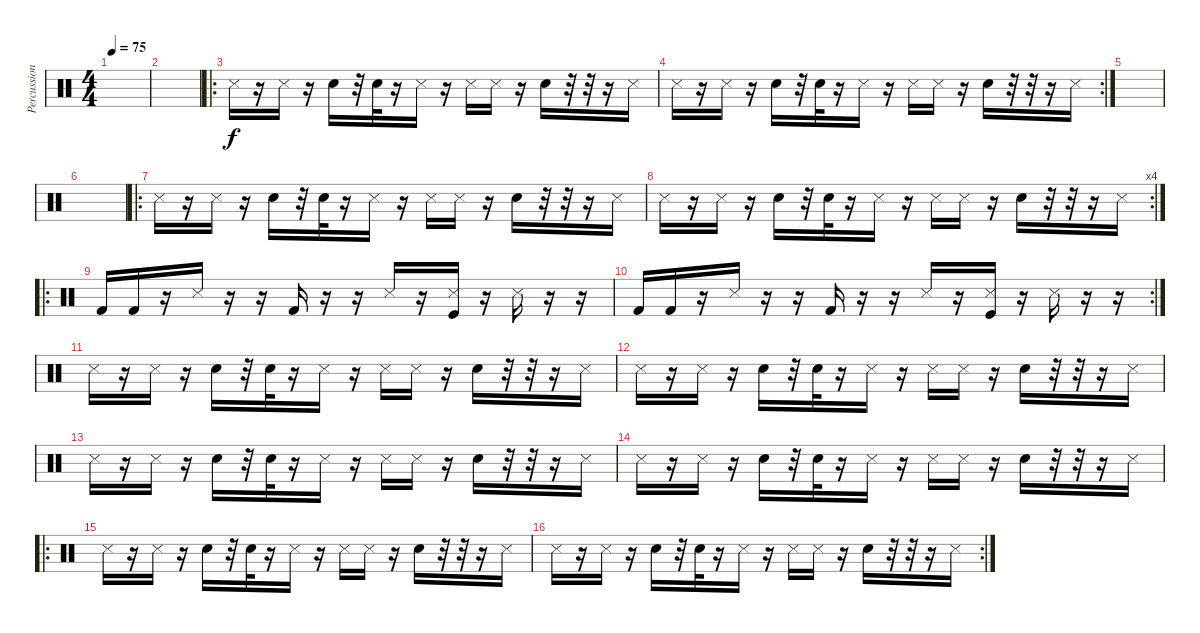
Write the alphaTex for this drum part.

\track ("Percussions" "Percussion") {instrument percussion}
\staff {score}
\articulation defaults
\ts (4 4)
\tempo 75
\clef neutral
\ks c
|
|
\ro "Snare (side stick) 3".16
r.16 "Snare (side stick) 3".16 r.16 "Electric Snare (hit)".16 r.32 "Electric Snare (hit)".32 r.16 "Snare (side stick) 3".16 r.16 "Snare (side stick) 3".16 "Snare (side stick) 3".16 r.16 "Electric Snare (hit)".16 r.32 r.32 r.16 "Snare (side stick) 3".16 |
\rc 2 "Snare (side stick) 3".16
r.16 "Snare (side stick) 3".16 r.16 "Electric Snare (hit)".16 r.32 "Electric Snare (hit)".32 r.16 "Snare (side stick) 3".16 r.16 "Snare (side stick) 3".16 "Snare (side stick) 3".16 r.16 "Electric Snare (hit)".16 r.32 r.32 r.16 "Snare (side stick) 3".16 |
|
|
\ro "Snare (side stick) 3".16
r.16 "Snare (side stick) 3".16 r.16 "Electric Snare (hit)".16 r.32 "Electric Snare (hit)".32 r.16 "Snare (side stick) 3".16 r.16 "Snare (side stick) 3".16 "Snare (side stick) 3".16 r.16 "Electric Snare (hit)".16 r.32 r.32 r.16 "Snare (side stick) 3".16 |
\rc 4 "Snare (side stick) 3".16
r.16 "Snare (side stick) 3".16 r.16 "Electric Snare (hit)".16 r.32 "Electric Snare (hit)".32 r.16 "Snare (side stick) 3".16 r.16 "Snare (side stick) 3".16 "Snare (side stick) 3".16 r.16 "Electric Snare (hit)".16 r.32 r.32 r.16 "Snare (side stick) 3".16 |
\ro "Kick (hit) 2".16 "Kick (hit) 2".16
r.16 "Snare (side stick) 3".16 r.16 r.16 "Kick (hit) 2".16 r.16 r.16 "Snare (side stick) 3".16 r.16 ("Snare (side stick) 3" "Kick (hit)").16 r.16 "Snare (side stick) 3".16 r.16 r.16 |
\rc 2 "Kick (hit) 2".16 "Kick (hit) 2".16
r.16 "Snare (side stick) 3".16 r.16 r.16 "Kick (hit) 2".16 r.16 r.16 "Snare (side stick) 3".16 r.16 ("Snare (side stick) 3" "Kick (hit)").16 r.16 "Snare (side stick) 3".16 r.16 r.16 |
"Snare (side stick) 3".16 r.16 "Snare (side stick) 3".16 r.16 "Electric Snare (hit)".16 r.32 "Electric Snare (hit)".32 r.16 "Snare (side stick) 3".16 r.16 "Snare (side stick) 3".16 "Snare (side stick) 3".16 r.16 "Electric Snare (hit)".16 r.32 r.32 r.16 "Snare (side stick) 3".16 |
"Snare (side stick) 3".16 r.16 "Snare (side stick) 3".16 r.16 "Electric Snare (hit)".16 r.32 "Electric Snare (hit)".32 r.16 "Snare (side stick) 3".16 r.16 "Snare (side stick) 3".16 "Snare (side stick) 3".16 r.16 "Electric Snare (hit)".16 r.32 r.32 r.16 "Snare (side stick) 3".16 |
"Snare (side stick) 3".16 r.16 "Snare (side stick) 3".16 r.16 "Electric Snare (hit)".16 r.32 "Electric Snare (hit)".32 r.16 "Snare (side stick) 3".16 r.16 "Snare (side stick) 3".16 "Snare (side stick) 3".16 r.16 "Electric Snare (hit)".16 r.32 r.32 r.16 "Snare (side stick) 3".16 |
"Snare (side stick) 3".16 r.16 "Snare (side stick) 3".16 r.16 "Electric Snare (hit)".16 r.32 "Electric Snare (hit)".32 r.16 "Snare (side stick) 3".16 r.16 "Snare (side stick) 3".16 "Snare (side stick) 3".16 r.16 "Electric Snare (hit)".16 r.32 r.32 r.16 "Snare (side stick) 3".16 |
\ro "Snare (side stick) 3".16
r.16 "Snare (side stick) 3".16 r.16 "Electric Snare (hit)".16 r.32 "Electric Snare (hit)".32 r.16 "Snare (side stick) 3".16 r.16 "Snare (side stick) 3".16 "Snare (side stick) 3".16 r.16 "Electric Snare (hit)".16 r.32 r.32 r.16 "Snare (side stick) 3".16 |
\rc 2 "Snare (side stick) 3".16
r.16 "Snare (side stick) 3".16 r.16 "Electric Snare (hit)".16 r.32 "Electric Snare (hit)".32 r.16 "Snare (side stick) 3".16 r.16 "Snare (side stick) 3".16 "Snare (side stick) 3".16 r.16 "Electric Snare (hit)".16 r.32 r.32 r.16 "Snare (side stick) 3".16
